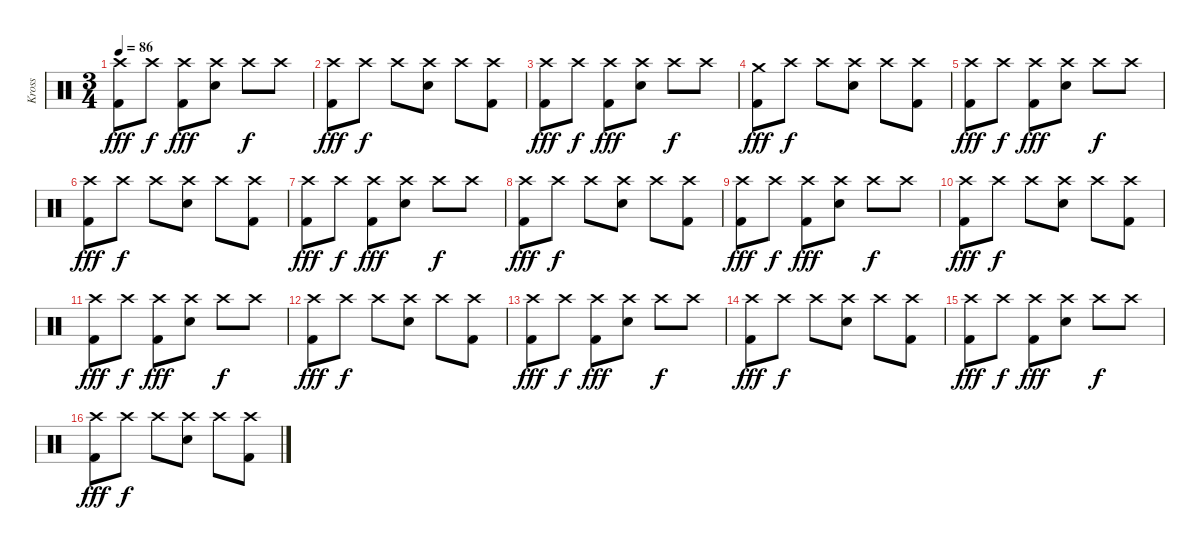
\track ("Kross" "Kross") {instrument percussion}
\staff {score}
\articulation defaults
\ts (3 4)
\tempo 86
\clef neutral
\ks c
("Crash high (hit)" "Kick (hit) 2").8{dy fff} "Crash high (hit)".8{dy f} ("Crash high (hit)" "Kick (hit) 2").8{dy fff} ("Crash high (hit)" "Electric Snare (hit)").8 "Crash high (hit)".8{dy f} "Crash high (hit)".8 |
("Crash high (hit)" "Kick (hit) 2").8{dy fff} "Crash high (hit)".8{dy f} "Crash high (hit)".8 ("Crash high (hit)" "Electric Snare (hit)").8 "Crash high (hit)".8 ("Crash high (hit)" "Kick (hit) 2").8 |
("Crash high (hit)" "Kick (hit) 2").8{dy fff} "Crash high (hit)".8{dy f} ("Crash high (hit)" "Kick (hit) 2").8{dy fff} ("Crash high (hit)" "Electric Snare (hit)").8 "Crash high (hit)".8{dy f} "Crash high (hit)".8 |
("Crash medium (hit)" "Kick (hit) 2").8{dy fff} "Crash high (hit)".8{dy f} "Crash high (hit)".8 ("Crash high (hit)" "Electric Snare (hit)").8 "Crash high (hit)".8 ("Crash high (hit)" "Kick (hit) 2").8 |
("Crash high (hit)" "Kick (hit) 2").8{dy fff} "Crash high (hit)".8{dy f} ("Crash high (hit)" "Kick (hit) 2").8{dy fff} ("Crash high (hit)" "Electric Snare (hit)").8 "Crash high (hit)".8{dy f} "Crash high (hit)".8 |
("Crash high (hit)" "Kick (hit) 2").8{dy fff} "Crash high (hit)".8{dy f} "Crash high (hit)".8 ("Crash high (hit)" "Electric Snare (hit)").8 "Crash high (hit)".8 ("Crash high (hit)" "Kick (hit) 2").8 |
("Crash high (hit)" "Kick (hit) 2").8{dy fff} "Crash high (hit)".8{dy f} ("Crash high (hit)" "Kick (hit) 2").8{dy fff} ("Crash high (hit)" "Electric Snare (hit)").8 "Crash high (hit)".8{dy f} "Crash high (hit)".8 |
("Crash high (hit)" "Kick (hit) 2").8{dy fff} "Crash high (hit)".8{dy f} "Crash high (hit)".8 ("Crash high (hit)" "Electric Snare (hit)").8 "Crash high (hit)".8 ("Crash high (hit)" "Kick (hit) 2").8 |
("Crash high (hit)" "Kick (hit) 2").8{dy fff} "Crash high (hit)".8{dy f} ("Crash high (hit)" "Kick (hit) 2").8{dy fff} ("Crash high (hit)" "Electric Snare (hit)").8 "Crash high (hit)".8{dy f} "Crash high (hit)".8 |
("Crash high (hit)" "Kick (hit) 2").8{dy fff} "Crash high (hit)".8{dy f} "Crash high (hit)".8 ("Crash high (hit)" "Electric Snare (hit)").8 "Crash high (hit)".8 ("Crash high (hit)" "Kick (hit) 2").8 |
("Crash high (hit)" "Kick (hit) 2").8{dy fff} "Crash high (hit)".8{dy f} ("Crash high (hit)" "Kick (hit) 2").8{dy fff} ("Crash high (hit)" "Electric Snare (hit)").8 "Crash high (hit)".8{dy f} "Crash high (hit)".8 |
("Crash high (hit)" "Kick (hit) 2").8{dy fff} "Crash high (hit)".8{dy f} "Crash high (hit)".8 ("Crash high (hit)" "Electric Snare (hit)").8 "Crash high (hit)".8 ("Crash high (hit)" "Kick (hit) 2").8 |
("Crash high (hit)" "Kick (hit) 2").8{dy fff} "Crash high (hit)".8{dy f} ("Crash high (hit)" "Kick (hit) 2").8{dy fff} ("Crash high (hit)" "Electric Snare (hit)").8 "Crash high (hit)".8{dy f} "Crash high (hit)".8 |
("Crash high (hit)" "Kick (hit) 2").8{dy fff} "Crash high (hit)".8{dy f} "Crash high (hit)".8 ("Crash high (hit)" "Electric Snare (hit)").8 "Crash high (hit)".8 ("Crash high (hit)" "Kick (hit) 2").8 |
("Crash high (hit)" "Kick (hit) 2").8{dy fff} "Crash high (hit)".8{dy f} ("Crash high (hit)" "Kick (hit) 2").8{dy fff} ("Crash high (hit)" "Electric Snare (hit)").8 "Crash high (hit)".8{dy f} "Crash high (hit)".8 |
("Crash high (hit)" "Kick (hit) 2").8{dy fff} "Crash high (hit)".8{dy f} "Crash high (hit)".8 ("Crash high (hit)" "Electric Snare (hit)").8 "Crash high (hit)".8 ("Crash high (hit)" "Kick (hit) 2").8
